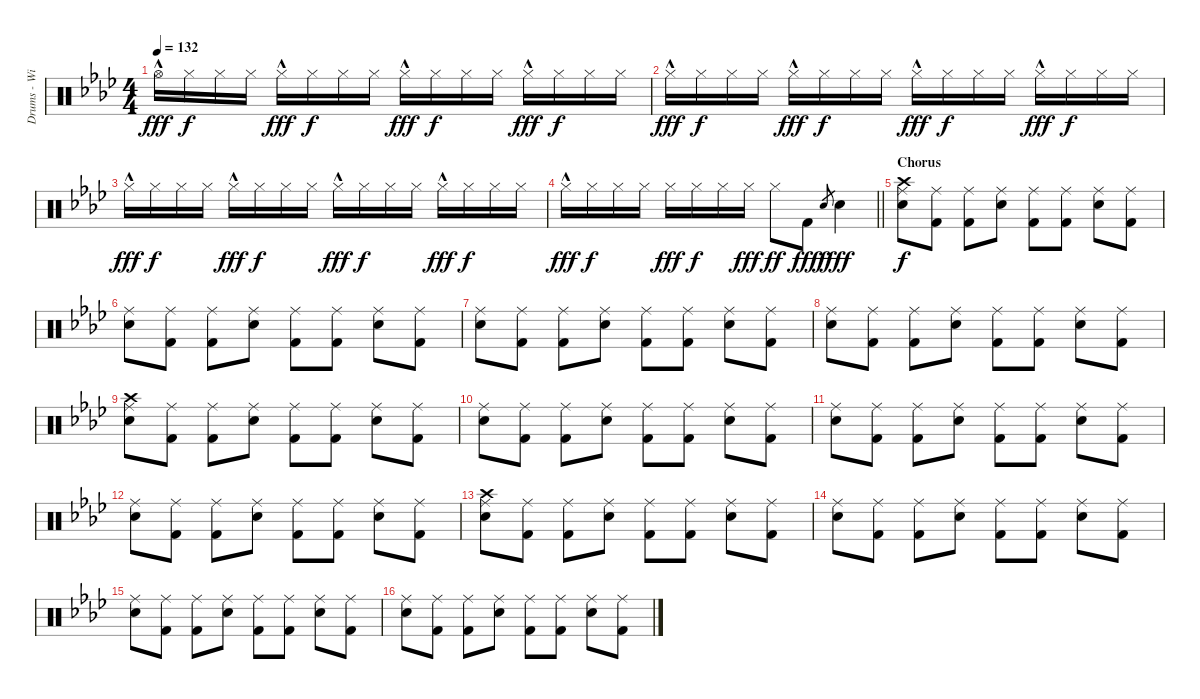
\track ("Drums - Will" "Drums - Wi") {instrument percussion}
\staff {score}
\articulation defaults
\ts (4 4)
\tempo 132
\clef neutral
\ks ab "Hi-Hat (open)"{hac}.16{dy fff} "Hi-Hat (closed)".16{dy f} "Hi-Hat (closed)".16 "Hi-Hat (closed)".16 "Hi-Hat (closed)"{hac}.16{dy fff} "Hi-Hat (closed)".16{dy f} "Hi-Hat (closed)".16 "Hi-Hat (closed)".16 "Hi-Hat (closed)"{hac}.16{dy fff} "Hi-Hat (closed)".16{dy f} "Hi-Hat (closed)".16 "Hi-Hat (closed)".16 "Hi-Hat (closed)"{hac}.16{dy fff} "Hi-Hat (closed)".16{dy f} "Hi-Hat (closed)".16 "Hi-Hat (closed)".16
|
"Hi-Hat (closed)"{hac}.16{dy fff} "Hi-Hat (closed)".16{dy f} "Hi-Hat (closed)".16 "Hi-Hat (closed)".16 "Hi-Hat (closed)"{hac}.16{dy fff} "Hi-Hat (closed)".16{dy f} "Hi-Hat (closed)".16 "Hi-Hat (closed)".16 "Hi-Hat (closed)"{hac}.16{dy fff} "Hi-Hat (closed)".16{dy f} "Hi-Hat (closed)".16 "Hi-Hat (closed)".16 "Hi-Hat (closed)"{hac}.16{dy fff} "Hi-Hat (closed)".16{dy f} "Hi-Hat (closed)".16 "Hi-Hat (closed)".16 |
"Hi-Hat (closed)"{hac}.16{dy fff} "Hi-Hat (closed)".16{dy f} "Hi-Hat (closed)".16 "Hi-Hat (closed)".16 "Hi-Hat (closed)"{hac}.16{dy fff} "Hi-Hat (closed)".16{dy f} "Hi-Hat (closed)".16 "Hi-Hat (closed)".16 "Hi-Hat (closed)"{hac}.16{dy fff} "Hi-Hat (closed)".16{dy f} "Hi-Hat (closed)".16 "Hi-Hat (closed)".16 "Hi-Hat (closed)"{hac}.16{dy fff} "Hi-Hat (closed)".16{dy f} "Hi-Hat (closed)".16 "Hi-Hat (closed)".16 |
\barLineRight lightlight "Hi-Hat (closed)"{hac}.16{dy fff} "Hi-Hat (closed)".16{dy f} "Hi-Hat (closed)".16 "Hi-Hat (closed)".16 "Hi-Hat (closed)".16{dy fff} "Hi-Hat (closed)".16{dy f} "Hi-Hat (closed)".16 "Hi-Hat (closed)".16{dy fff} "Hi-Hat (closed)".8{dy ff} "Kick (hit) 2".8{dy fff} "Electric Snare (hit)".8{gr dy f} "Electric Snare (hit)".4{dy fff}
|
\section ("" "Chorus")
("Crash high (hit)" "Ride (middle)" "Electric Snare (hit)").8{dy f} ("Ride (middle)" "Kick (hit) 2").8 ("Ride (middle)" "Kick (hit) 2").8 ("Ride (middle)" "Electric Snare (hit)").8 ("Ride (middle)" "Kick (hit) 2").8 ("Ride (middle)" "Kick (hit) 2").8 ("Ride (middle)" "Electric Snare (hit)").8 ("Ride (middle)" "Kick (hit) 2").8 |
("Ride (middle)" "Electric Snare (hit)").8 ("Ride (middle)" "Kick (hit) 2").8 ("Ride (middle)" "Kick (hit) 2").8 ("Ride (middle)" "Electric Snare (hit)").8 ("Ride (middle)" "Kick (hit) 2").8 ("Ride (middle)" "Kick (hit) 2").8 ("Ride (middle)" "Electric Snare (hit)").8 ("Ride (middle)" "Kick (hit) 2").8 |
("Ride (middle)" "Electric Snare (hit)").8 ("Ride (middle)" "Kick (hit) 2").8 ("Ride (middle)" "Kick (hit) 2").8 ("Ride (middle)" "Electric Snare (hit)").8 ("Ride (middle)" "Kick (hit) 2").8 ("Ride (middle)" "Kick (hit) 2").8 ("Ride (middle)" "Electric Snare (hit)").8 ("Ride (middle)" "Kick (hit) 2").8 |
("Ride (middle)" "Electric Snare (hit)").8 ("Ride (middle)" "Kick (hit) 2").8 ("Ride (middle)" "Kick (hit) 2").8 ("Ride (middle)" "Electric Snare (hit)").8 ("Ride (middle)" "Kick (hit) 2").8 ("Ride (middle)" "Kick (hit) 2").8 ("Ride (middle)" "Electric Snare (hit)").8 ("Ride (middle)" "Kick (hit) 2").8 |
("Crash high (hit)" "Ride (middle)" "Electric Snare (hit)").8 ("Ride (middle)" "Kick (hit) 2").8 ("Ride (middle)" "Kick (hit) 2").8 ("Ride (middle)" "Electric Snare (hit)").8 ("Ride (middle)" "Kick (hit) 2").8 ("Ride (middle)" "Kick (hit) 2").8 ("Ride (middle)" "Electric Snare (hit)").8 ("Ride (middle)" "Kick (hit) 2").8 |
("Ride (middle)" "Electric Snare (hit)").8 ("Ride (middle)" "Kick (hit) 2").8 ("Ride (middle)" "Kick (hit) 2").8 ("Ride (middle)" "Electric Snare (hit)").8 ("Ride (middle)" "Kick (hit) 2").8 ("Ride (middle)" "Kick (hit) 2").8 ("Ride (middle)" "Electric Snare (hit)").8 ("Ride (middle)" "Kick (hit) 2").8 |
("Ride (middle)" "Electric Snare (hit)").8 ("Ride (middle)" "Kick (hit) 2").8 ("Ride (middle)" "Kick (hit) 2").8 ("Ride (middle)" "Electric Snare (hit)").8 ("Ride (middle)" "Kick (hit) 2").8 ("Ride (middle)" "Kick (hit) 2").8 ("Ride (middle)" "Electric Snare (hit)").8 ("Ride (middle)" "Kick (hit) 2").8 |
("Ride (middle)" "Electric Snare (hit)").8 ("Ride (middle)" "Kick (hit) 2").8 ("Ride (middle)" "Kick (hit) 2").8 ("Ride (middle)" "Electric Snare (hit)").8 ("Ride (middle)" "Kick (hit) 2").8 ("Ride (middle)" "Kick (hit) 2").8 ("Ride (middle)" "Electric Snare (hit)").8 ("Ride (middle)" "Kick (hit) 2").8 |
("Crash high (hit)" "Ride (middle)" "Electric Snare (hit)").8 ("Ride (middle)" "Kick (hit) 2").8 ("Ride (middle)" "Kick (hit) 2").8 ("Ride (middle)" "Electric Snare (hit)").8 ("Ride (middle)" "Kick (hit) 2").8 ("Ride (middle)" "Kick (hit) 2").8 ("Ride (middle)" "Electric Snare (hit)").8 ("Ride (middle)" "Kick (hit) 2").8 |
("Ride (middle)" "Electric Snare (hit)").8 ("Ride (middle)" "Kick (hit) 2").8 ("Ride (middle)" "Kick (hit) 2").8 ("Ride (middle)" "Electric Snare (hit)").8 ("Ride (middle)" "Kick (hit) 2").8 ("Ride (middle)" "Kick (hit) 2").8 ("Ride (middle)" "Electric Snare (hit)").8 ("Ride (middle)" "Kick (hit) 2").8 |
("Ride (middle)" "Electric Snare (hit)").8 ("Ride (middle)" "Kick (hit) 2").8 ("Ride (middle)" "Kick (hit) 2").8 ("Ride (middle)" "Electric Snare (hit)").8 ("Ride (middle)" "Kick (hit) 2").8 ("Ride (middle)" "Kick (hit) 2").8 ("Ride (middle)" "Electric Snare (hit)").8 ("Ride (middle)" "Kick (hit) 2").8 |
("Ride (middle)" "Electric Snare (hit)").8 ("Ride (middle)" "Kick (hit) 2").8 ("Ride (middle)" "Kick (hit) 2").8 ("Ride (middle)" "Electric Snare (hit)").8 ("Ride (middle)" "Kick (hit) 2").8 ("Ride (middle)" "Kick (hit) 2").8 ("Ride (middle)" "Electric Snare (hit)").8 ("Ride (middle)" "Kick (hit) 2").8
